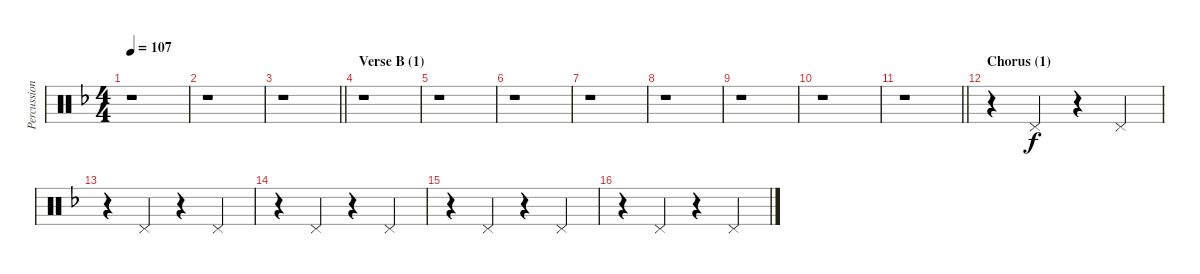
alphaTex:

\track ("Percussion" "Percussion") {instrument percussion}
\staff {score}
\articulation defaults
\ts (4 4)
\tempo 107
\clef neutral
\ks dminor
r.1{dy f} |
r.1 |
\barLineRight lightlight
r.1 |
\section ("" "Verse B (1)")
r.1 |
r.1 |
r.1 |
r.1 |
r.1 |
r.1 |
r.1 |
\barLineRight lightlight
r.1 |
\section ("" "Chorus (1)")
r.4 "Pedal Hi-Hat (hit)".4 r.4 "Pedal Hi-Hat (hit)".4 |
r.4 "Pedal Hi-Hat (hit)".4 r.4 "Pedal Hi-Hat (hit)".4 |
r.4 "Pedal Hi-Hat (hit)".4 r.4 "Pedal Hi-Hat (hit)".4 |
r.4 "Pedal Hi-Hat (hit)".4 r.4 "Pedal Hi-Hat (hit)".4 |
r.4 "Pedal Hi-Hat (hit)".4 r.4 "Pedal Hi-Hat (hit)".4
